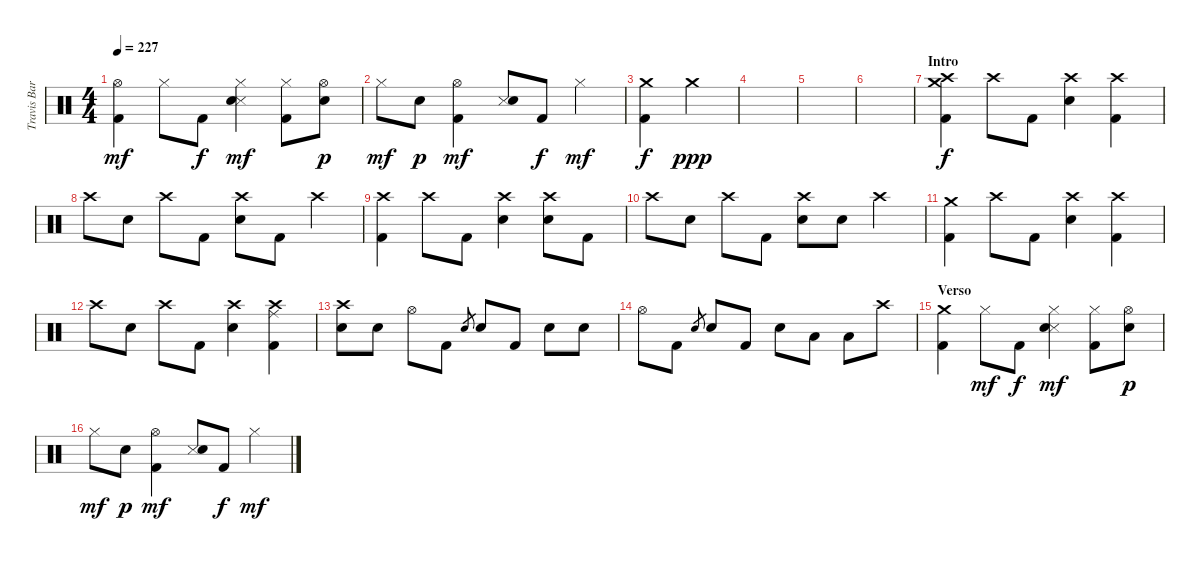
\track ("Travis Barker - Batería" "Travis Bar") {instrument percussion}
\staff {score}
\articulation defaults
\ts (4 4)
\tempo 227
\clef neutral
\ks c
("Hi-Hat (open)" "Kick (hit) 2").4{dy mf} "Hi-Hat (closed)".8 "Kick (hit) 2".8{dy f} ("Hi-Hat (closed)" "Snare (side stick) 3" "Electric Snare (hit)").4{dy mf} ("Hi-Hat (closed)" "Kick (hit) 2").8 ("Hi-Hat (open)" "Electric Snare (hit)").8{dy p} |
"Hi-Hat (closed)".8{dy mf} "Electric Snare (hit)".8{dy p} ("Hi-Hat (open)" "Kick (hit) 2").4{dy mf} ("Snare (side stick) 3" "Electric Snare (hit)").8 "Kick (hit) 2".8{dy f} "Hi-Hat (closed)".4{dy mf} |
("Crash medium (hit)" "Kick (hit) 2").4{dy f} "Crash medium (hit)".4{dy ppp} |
|
|
|
\section ("" "Intro")
("Crash medium (hit)" "Crash high (hit)" "Kick (hit) 2").4{dy f} "Crash high (hit)".8 "Kick (hit) 2".8 ("Crash high (hit)" "Electric Snare (hit)").4 ("Crash high (hit)" "Kick (hit) 2").4 |
"Crash high (hit)".8 "Electric Snare (hit)".8 "Crash high (hit)".8 "Kick (hit) 2".8 ("Crash high (hit)" "Electric Snare (hit)").8 "Kick (hit) 2".8 "Crash high (hit)".4 |
("Crash high (hit)" "Kick (hit) 2").4 "Crash high (hit)".8 "Kick (hit) 2".8 ("Crash high (hit)" "Electric Snare (hit)").4 ("Crash high (hit)" "Electric Snare (hit)").8 "Kick (hit) 2".8 |
"Crash high (hit)".8 "Electric Snare (hit)".8 "Crash high (hit)".8 "Kick (hit) 2".8 ("Crash high (hit)" "Electric Snare (hit)").8 "Electric Snare (hit)".8 "Crash high (hit)".4 |
("Crash medium (hit)" "Kick (hit) 2").4 "Crash high (hit)".8 "Kick (hit) 2".8 ("Crash high (hit)" "Electric Snare (hit)").4 ("Crash high (hit)" "Kick (hit) 2").4 |
"Crash high (hit)".8 "Electric Snare (hit)".8 "Crash high (hit)".8 "Kick (hit) 2".8 ("Crash high (hit)" "Electric Snare (hit)").4 ("Crash high (hit)" "Ride (middle)" "Kick (hit) 2").4 |
("Crash high (hit)" "Electric Snare (hit)").8 "Electric Snare (hit)".8 "Hi-Hat (open)".8 "Kick (hit) 2".8 "Electric Snare (hit)".8{gr} "Electric Snare (hit)".8 "Kick (hit) 2".8 "Electric Snare (hit)".8 "Electric Snare (hit)".8 |
"Hi-Hat (open)".8 "Kick (hit) 2".8 "Electric Snare (hit)".8{gr} "Electric Snare (hit)".8 "Kick (hit) 2".8 "Electric Snare (hit)".8 "Low Tom (hit)".8 "Low Floor Tom (hit)".8 "Crash high (hit)".8 |
\section ("" "Verso")
("Crash medium (hit)" "Kick (hit) 2").4 "Hi-Hat (closed)".8{dy mf} "Kick (hit) 2".8{dy f} ("Hi-Hat (closed)" "Snare (side stick) 3" "Electric Snare (hit)").4{dy mf} ("Hi-Hat (closed)" "Kick (hit) 2").8 ("Hi-Hat (open)" "Electric Snare (hit)").8{dy p} |
"Hi-Hat (closed)".8{dy mf} "Electric Snare (hit)".8{dy p} ("Hi-Hat (open)" "Kick (hit) 2").4{dy mf} ("Snare (side stick) 3" "Electric Snare (hit)").8 "Kick (hit) 2".8{dy f} "Hi-Hat (closed)".4{dy mf}
